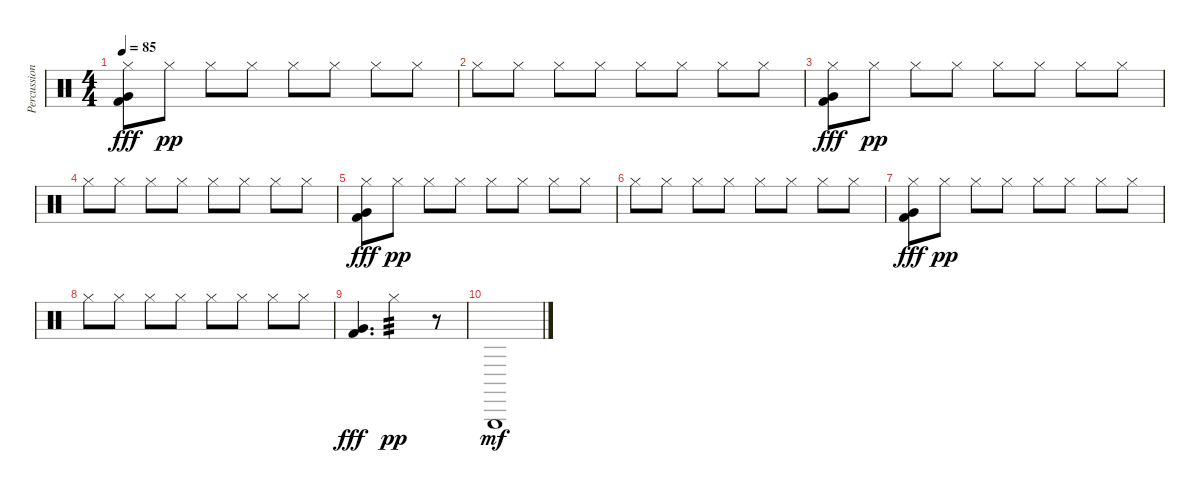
\track ("Percussion" "Percussion") {instrument percussion}
\staff {score}
\articulation defaults
\ts (4 4)
\tempo 85
\clef neutral
\ks c
("Hi-Hat (closed)" "Very Low Tom (hit)" "Kick (hit) 2").8{dy fff} "Hi-Hat (closed)".8{dy pp} "Hi-Hat (closed)".8 "Hi-Hat (closed)".8 "Hi-Hat (closed)".8 "Hi-Hat (closed)".8 "Hi-Hat (closed)".8 "Hi-Hat (closed)".8 |
"Hi-Hat (closed)".8 "Hi-Hat (closed)".8 "Hi-Hat (closed)".8 "Hi-Hat (closed)".8 "Hi-Hat (closed)".8 "Hi-Hat (closed)".8 "Hi-Hat (closed)".8 "Hi-Hat (closed)".8 |
("Hi-Hat (closed)" "Very Low Tom (hit)" "Kick (hit) 2").8{dy fff} "Hi-Hat (closed)".8{dy pp} "Hi-Hat (closed)".8 "Hi-Hat (closed)".8 "Hi-Hat (closed)".8 "Hi-Hat (closed)".8 "Hi-Hat (closed)".8 "Hi-Hat (closed)".8 |
"Hi-Hat (closed)".8 "Hi-Hat (closed)".8 "Hi-Hat (closed)".8 "Hi-Hat (closed)".8 "Hi-Hat (closed)".8 "Hi-Hat (closed)".8 "Hi-Hat (closed)".8 "Hi-Hat (closed)".8 |
("Hi-Hat (closed)" "Very Low Tom (hit)" "Kick (hit) 2").8{dy fff} "Hi-Hat (closed)".8{dy pp} "Hi-Hat (closed)".8 "Hi-Hat (closed)".8 "Hi-Hat (closed)".8 "Hi-Hat (closed)".8 "Hi-Hat (closed)".8 "Hi-Hat (closed)".8 |
"Hi-Hat (closed)".8 "Hi-Hat (closed)".8 "Hi-Hat (closed)".8 "Hi-Hat (closed)".8 "Hi-Hat (closed)".8 "Hi-Hat (closed)".8 "Hi-Hat (closed)".8 "Hi-Hat (closed)".8 |
("Hi-Hat (closed)" "Very Low Tom (hit)" "Kick (hit) 2").8{dy fff} "Hi-Hat (closed)".8{dy pp} "Hi-Hat (closed)".8 "Hi-Hat (closed)".8 "Hi-Hat (closed)".8 "Hi-Hat (closed)".8 "Hi-Hat (closed)".8 "Hi-Hat (closed)".8 |
"Hi-Hat (closed)".8 "Hi-Hat (closed)".8 "Hi-Hat (closed)".8 "Hi-Hat (closed)".8 "Hi-Hat (closed)".8 "Hi-Hat (closed)".8 "Hi-Hat (closed)".8 "Hi-Hat (closed)".8 |
("Very Low Tom (hit)" "Kick (hit) 2").4{d dy fff} "Hi-Hat (closed)".2{tp 3 dy pp volume 0} r.8 |
"Triangle (hit)".1{dy mf volume 16}
